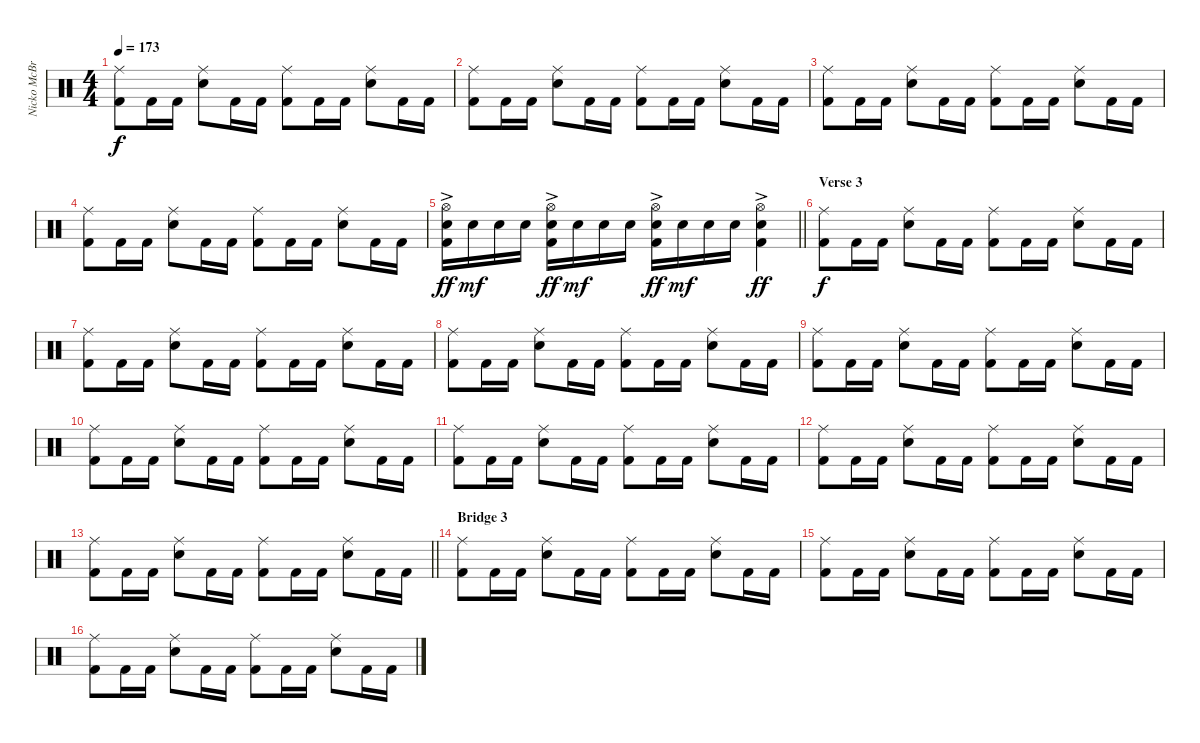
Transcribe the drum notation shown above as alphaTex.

\track ("Nicko McBrain" "Nicko McBr") {instrument percussion}
\staff {score}
\articulation defaults
\ts (4 4)
\tempo 173
\clef neutral
\ks c
("Ride (middle)" "Kick (hit) 2").8{dy f} "Kick (hit) 2".16 "Kick (hit) 2".16 ("Ride (middle)" "Electric Snare (hit)").8 "Kick (hit) 2".16 "Kick (hit) 2".16 ("Ride (middle)" "Kick (hit) 2").8 "Kick (hit) 2".16 "Kick (hit) 2".16 ("Ride (middle)" "Electric Snare (hit)").8 "Kick (hit) 2".16 "Kick (hit) 2".16 |
("Ride (middle)" "Kick (hit) 2").8 "Kick (hit) 2".16 "Kick (hit) 2".16 ("Ride (middle)" "Electric Snare (hit)").8 "Kick (hit) 2".16 "Kick (hit) 2".16 ("Ride (middle)" "Kick (hit) 2").8 "Kick (hit) 2".16 "Kick (hit) 2".16 ("Ride (middle)" "Electric Snare (hit)").8 "Kick (hit) 2".16 "Kick (hit) 2".16 |
("Ride (middle)" "Kick (hit) 2").8 "Kick (hit) 2".16 "Kick (hit) 2".16 ("Ride (middle)" "Electric Snare (hit)").8 "Kick (hit) 2".16 "Kick (hit) 2".16 ("Ride (middle)" "Kick (hit) 2").8 "Kick (hit) 2".16 "Kick (hit) 2".16 ("Ride (middle)" "Electric Snare (hit)").8 "Kick (hit) 2".16 "Kick (hit) 2".16 |
("Ride (middle)" "Kick (hit) 2").8 "Kick (hit) 2".16 "Kick (hit) 2".16 ("Ride (middle)" "Electric Snare (hit)").8 "Kick (hit) 2".16 "Kick (hit) 2".16 ("Ride (middle)" "Kick (hit) 2").8 "Kick (hit) 2".16 "Kick (hit) 2".16 ("Ride (middle)" "Electric Snare (hit)").8 "Kick (hit) 2".16 "Kick (hit) 2".16 |
\barLineRight lightlight
("Hi-Hat (open)" "Electric Snare (hit)"{ac} "Kick (hit) 2").16{dy ff} "Electric Snare (hit)".16{dy mf} "Electric Snare (hit)".16 "Electric Snare (hit)".16 ("Hi-Hat (open)" "Electric Snare (hit)"{ac} "Kick (hit) 2").16{dy ff} "Electric Snare (hit)".16{dy mf} "Electric Snare (hit)".16 "Electric Snare (hit)".16 ("Hi-Hat (open)" "Electric Snare (hit)"{ac} "Kick (hit) 2").16{dy ff} "Electric Snare (hit)".16{dy mf} "Electric Snare (hit)".16 "Electric Snare (hit)".16 ("Hi-Hat (open)" "Electric Snare (hit)"{ac} "Kick (hit) 2").4{dy ff} |
\section ("" "Verse 3")
("Ride (middle)" "Kick (hit) 2").8{dy f} "Kick (hit) 2".16 "Kick (hit) 2".16 ("Ride (middle)" "Electric Snare (hit)").8 "Kick (hit) 2".16 "Kick (hit) 2".16 ("Ride (middle)" "Kick (hit) 2").8 "Kick (hit) 2".16 "Kick (hit) 2".16 ("Ride (middle)" "Electric Snare (hit)").8 "Kick (hit) 2".16 "Kick (hit) 2".16 |
("Ride (middle)" "Kick (hit) 2").8 "Kick (hit) 2".16 "Kick (hit) 2".16 ("Ride (middle)" "Electric Snare (hit)").8 "Kick (hit) 2".16 "Kick (hit) 2".16 ("Ride (middle)" "Kick (hit) 2").8 "Kick (hit) 2".16 "Kick (hit) 2".16 ("Ride (middle)" "Electric Snare (hit)").8 "Kick (hit) 2".16 "Kick (hit) 2".16 |
("Ride (middle)" "Kick (hit) 2").8 "Kick (hit) 2".16 "Kick (hit) 2".16 ("Ride (middle)" "Electric Snare (hit)").8 "Kick (hit) 2".16 "Kick (hit) 2".16 ("Ride (middle)" "Kick (hit) 2").8 "Kick (hit) 2".16 "Kick (hit) 2".16 ("Ride (middle)" "Electric Snare (hit)").8 "Kick (hit) 2".16 "Kick (hit) 2".16 |
("Ride (middle)" "Kick (hit) 2").8 "Kick (hit) 2".16 "Kick (hit) 2".16 ("Ride (middle)" "Electric Snare (hit)").8 "Kick (hit) 2".16 "Kick (hit) 2".16 ("Ride (middle)" "Kick (hit) 2").8 "Kick (hit) 2".16 "Kick (hit) 2".16 ("Ride (middle)" "Electric Snare (hit)").8 "Kick (hit) 2".16 "Kick (hit) 2".16 |
("Ride (middle)" "Kick (hit) 2").8 "Kick (hit) 2".16 "Kick (hit) 2".16 ("Ride (middle)" "Electric Snare (hit)").8 "Kick (hit) 2".16 "Kick (hit) 2".16 ("Ride (middle)" "Kick (hit) 2").8 "Kick (hit) 2".16 "Kick (hit) 2".16 ("Ride (middle)" "Electric Snare (hit)").8 "Kick (hit) 2".16 "Kick (hit) 2".16 |
("Ride (middle)" "Kick (hit) 2").8 "Kick (hit) 2".16 "Kick (hit) 2".16 ("Ride (middle)" "Electric Snare (hit)").8 "Kick (hit) 2".16 "Kick (hit) 2".16 ("Ride (middle)" "Kick (hit) 2").8 "Kick (hit) 2".16 "Kick (hit) 2".16 ("Ride (middle)" "Electric Snare (hit)").8 "Kick (hit) 2".16 "Kick (hit) 2".16 |
("Ride (middle)" "Kick (hit) 2").8 "Kick (hit) 2".16 "Kick (hit) 2".16 ("Ride (middle)" "Electric Snare (hit)").8 "Kick (hit) 2".16 "Kick (hit) 2".16 ("Ride (middle)" "Kick (hit) 2").8 "Kick (hit) 2".16 "Kick (hit) 2".16 ("Ride (middle)" "Electric Snare (hit)").8 "Kick (hit) 2".16 "Kick (hit) 2".16 |
\barLineRight lightlight
("Ride (middle)" "Kick (hit) 2").8 "Kick (hit) 2".16 "Kick (hit) 2".16 ("Ride (middle)" "Electric Snare (hit)").8 "Kick (hit) 2".16 "Kick (hit) 2".16 ("Ride (middle)" "Kick (hit) 2").8 "Kick (hit) 2".16 "Kick (hit) 2".16 ("Ride (middle)" "Electric Snare (hit)").8 "Kick (hit) 2".16 "Kick (hit) 2".16 |
\section ("" "Bridge 3")
("Ride (middle)" "Kick (hit) 2").8 "Kick (hit) 2".16 "Kick (hit) 2".16 ("Ride (middle)" "Electric Snare (hit)").8 "Kick (hit) 2".16 "Kick (hit) 2".16 ("Ride (middle)" "Kick (hit) 2").8 "Kick (hit) 2".16 "Kick (hit) 2".16 ("Ride (middle)" "Electric Snare (hit)").8 "Kick (hit) 2".16 "Kick (hit) 2".16 |
("Ride (middle)" "Kick (hit) 2").8 "Kick (hit) 2".16 "Kick (hit) 2".16 ("Ride (middle)" "Electric Snare (hit)").8 "Kick (hit) 2".16 "Kick (hit) 2".16 ("Ride (middle)" "Kick (hit) 2").8 "Kick (hit) 2".16 "Kick (hit) 2".16 ("Ride (middle)" "Electric Snare (hit)").8 "Kick (hit) 2".16 "Kick (hit) 2".16 |
("Ride (middle)" "Kick (hit) 2").8 "Kick (hit) 2".16 "Kick (hit) 2".16 ("Ride (middle)" "Electric Snare (hit)").8 "Kick (hit) 2".16 "Kick (hit) 2".16 ("Ride (middle)" "Kick (hit) 2").8 "Kick (hit) 2".16 "Kick (hit) 2".16 ("Ride (middle)" "Electric Snare (hit)").8 "Kick (hit) 2".16 "Kick (hit) 2".16
